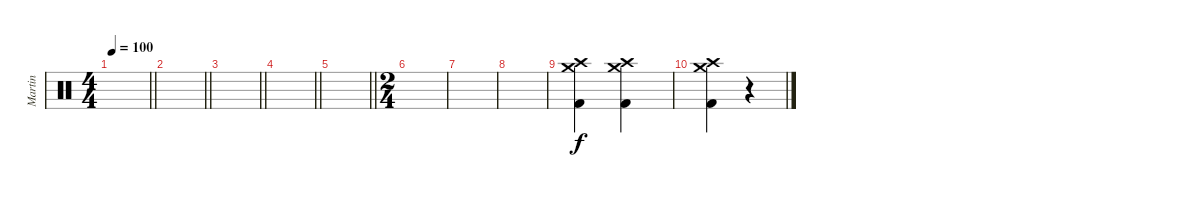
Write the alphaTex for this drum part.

\track ("Martin" "Martin") {instrument percussion}
\staff {score}
\articulation defaults
\ts (4 4)
\tempo 100
\clef neutral
\barLineRight lightlight
\ks c
|
\barLineRight lightlight
|
\barLineRight lightlight
|
\barLineRight lightlight
|
\barLineRight lightlight
|
\ts (2 4)
|
|
|
("Crash high (hit)" "Crash medium (hit)" "Kick (hit) 2").4 ("Crash medium (hit)" "Crash high (hit)" "Kick (hit) 2").4 |
("Crash high (hit)" "Crash medium (hit)" "Kick (hit) 2").4 r.4
